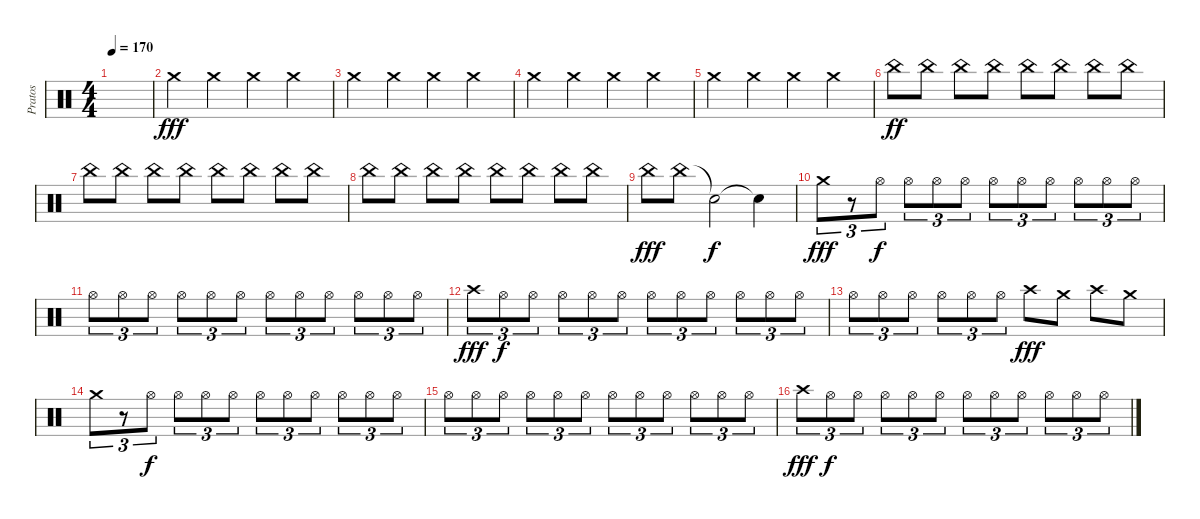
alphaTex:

\track ("Pratos" "Pratos") {instrument percussion}
\staff {score}
\articulation defaults
\ts (4 4)
\tempo 170
\clef neutral
\ks c
|
"Crash medium (hit)".4{dy fff} "Crash medium (hit)".4 "Crash medium (hit)".4 "Crash medium (hit)".4 |
"Crash medium (hit)".4 "Crash medium (hit)".4 "Crash medium (hit)".4 "Crash medium (hit)".4 |
"Crash medium (hit)".4 "Crash medium (hit)".4 "Crash medium (hit)".4 "Crash medium (hit)".4 |
"Crash medium (hit)".4 "Crash medium (hit)".4 "Crash medium (hit)".4 "Crash medium (hit)".4 |
"China (hit)".8{dy ff} "China (hit)".8 "China (hit)".8 "China (hit)".8 "China (hit)".8 "China (hit)".8 "China (hit)".8 "China (hit)".8 |
"China (hit)".8 "China (hit)".8 "China (hit)".8 "China (hit)".8 "China (hit)".8 "China (hit)".8 "China (hit)".8 "China (hit)".8 |
"China (hit)".8 "China (hit)".8 "China (hit)".8 "China (hit)".8 "China (hit)".8 "China (hit)".8 "China (hit)".8 "China (hit)".8 |
"China (hit)".8{dy fff} "China (hit)".8 "Snare (hit)"{t}.2{dy f} "Snare (hit)"{t}.4 |
"Crash medium (hit)".8{tu (3 2) dy fff} r.8{tu (3 2)} "Hi-Hat (open)".8{tu (3 2) dy f} "Hi-Hat (open)".8{tu (3 2)} "Hi-Hat (open)".8{tu (3 2)} "Hi-Hat (open)".8{tu (3 2)} "Hi-Hat (open)".8{tu (3 2)} "Hi-Hat (open)".8{tu (3 2)} "Hi-Hat (open)".8{tu (3 2)} "Hi-Hat (open)".8{tu (3 2)} "Hi-Hat (open)".8{tu (3 2)} "Hi-Hat (open)".8{tu (3 2)} |
"Hi-Hat (open)".8{tu (3 2)} "Hi-Hat (open)".8{tu (3 2)} "Hi-Hat (open)".8{tu (3 2)} "Hi-Hat (open)".8{tu (3 2)} "Hi-Hat (open)".8{tu (3 2)} "Hi-Hat (open)".8{tu (3 2)} "Hi-Hat (open)".8{tu (3 2)} "Hi-Hat (open)".8{tu (3 2)} "Hi-Hat (open)".8{tu (3 2)} "Hi-Hat (open)".8{tu (3 2)} "Hi-Hat (open)".8{tu (3 2)} "Hi-Hat (open)".8{tu (3 2)} |
"Crash high (hit)".8{tu (3 2) dy fff} "Hi-Hat (open)".8{tu (3 2) dy f} "Hi-Hat (open)".8{tu (3 2)} "Hi-Hat (open)".8{tu (3 2)} "Hi-Hat (open)".8{tu (3 2)} "Hi-Hat (open)".8{tu (3 2)} "Hi-Hat (open)".8{tu (3 2)} "Hi-Hat (open)".8{tu (3 2)} "Hi-Hat (open)".8{tu (3 2)} "Hi-Hat (open)".8{tu (3 2)} "Hi-Hat (open)".8{tu (3 2)} "Hi-Hat (open)".8{tu (3 2)} |
"Hi-Hat (open)".8{tu (3 2)} "Hi-Hat (open)".8{tu (3 2)} "Hi-Hat (open)".8{tu (3 2)} "Hi-Hat (open)".8{tu (3 2)} "Hi-Hat (open)".8{tu (3 2)} "Hi-Hat (open)".8{tu (3 2)} "Crash high (hit)".8{dy fff} "Crash medium (hit)".8 "Crash high (hit)".8 "Crash medium (hit)".8 |
"Crash medium (hit)".8{tu (3 2)} r.8{tu (3 2)} "Hi-Hat (open)".8{tu (3 2) dy f} "Hi-Hat (open)".8{tu (3 2)} "Hi-Hat (open)".8{tu (3 2)} "Hi-Hat (open)".8{tu (3 2)} "Hi-Hat (open)".8{tu (3 2)} "Hi-Hat (open)".8{tu (3 2)} "Hi-Hat (open)".8{tu (3 2)} "Hi-Hat (open)".8{tu (3 2)} "Hi-Hat (open)".8{tu (3 2)} "Hi-Hat (open)".8{tu (3 2)} |
"Hi-Hat (open)".8{tu (3 2)} "Hi-Hat (open)".8{tu (3 2)} "Hi-Hat (open)".8{tu (3 2)} "Hi-Hat (open)".8{tu (3 2)} "Hi-Hat (open)".8{tu (3 2)} "Hi-Hat (open)".8{tu (3 2)} "Hi-Hat (open)".8{tu (3 2)} "Hi-Hat (open)".8{tu (3 2)} "Hi-Hat (open)".8{tu (3 2)} "Hi-Hat (open)".8{tu (3 2)} "Hi-Hat (open)".8{tu (3 2)} "Hi-Hat (open)".8{tu (3 2)} |
"Crash high (hit)".8{tu (3 2) dy fff} "Hi-Hat (open)".8{tu (3 2) dy f} "Hi-Hat (open)".8{tu (3 2)} "Hi-Hat (open)".8{tu (3 2)} "Hi-Hat (open)".8{tu (3 2)} "Hi-Hat (open)".8{tu (3 2)} "Hi-Hat (open)".8{tu (3 2)} "Hi-Hat (open)".8{tu (3 2)} "Hi-Hat (open)".8{tu (3 2)} "Hi-Hat (open)".8{tu (3 2)} "Hi-Hat (open)".8{tu (3 2)} "Hi-Hat (open)".8{tu (3 2)}
